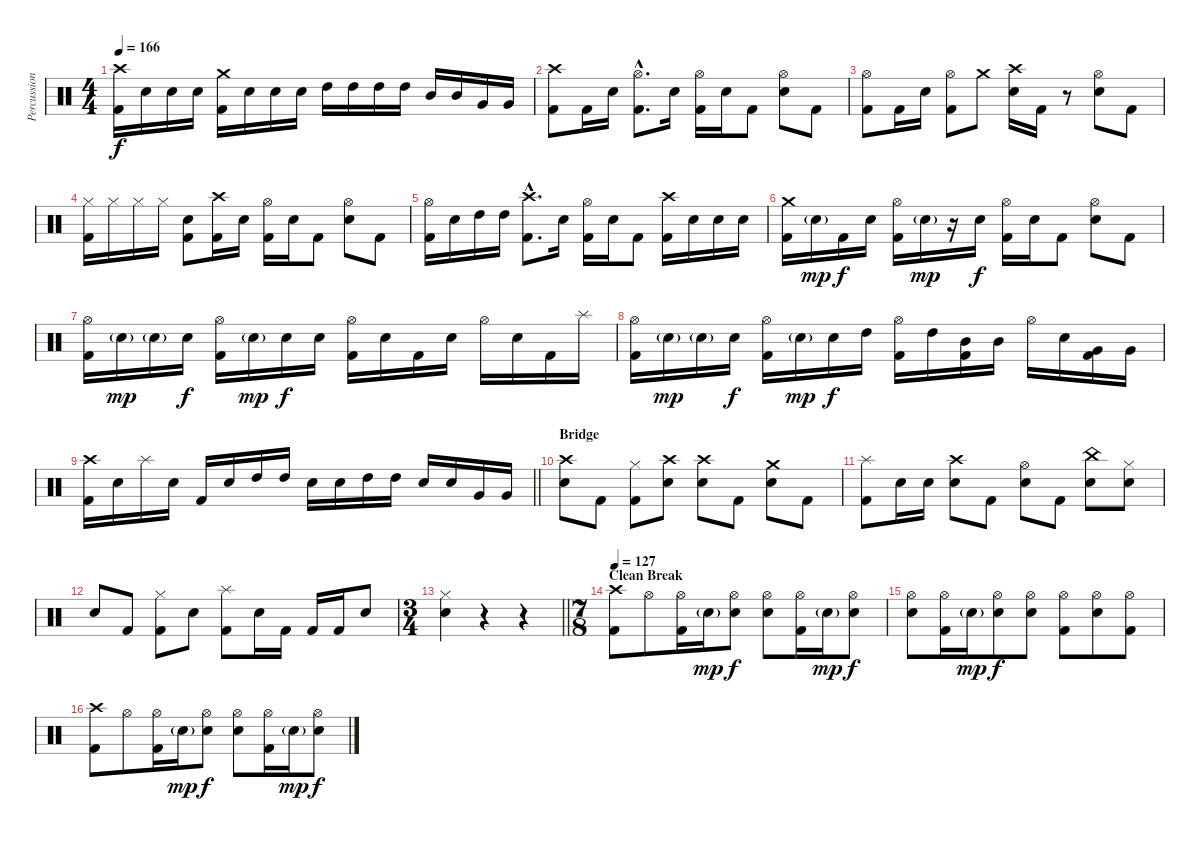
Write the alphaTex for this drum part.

\track ("Percussion" "Percussion") {instrument percussion}
\staff {score}
\articulation defaults
\ts (4 4)
\tempo 166
\clef neutral
\ks c
("Crash high (hit)" "Kick (hit) 2").16{dy f} "Electric Snare (hit)".16 "Electric Snare (hit)".16 "Electric Snare (hit)".16 ("Crash medium (hit)" "Kick (hit) 2").16 "Electric Snare (hit)".16 "Electric Snare (hit)".16 "Electric Snare (hit)".16 "High Tom (hit)".16 "High Tom (hit)".16 "High Tom (hit)".16 "High Tom (hit)".16 "Mid Tom (hit)".16 "Mid Tom (hit)".16 "Very Low Tom (hit)".16 "Very Low Tom (hit)".16 |
("Crash high (hit)" "Kick (hit) 2").8 "Kick (hit) 2".16 "Electric Snare (hit)".16 ("Hi-Hat (open)"{hac} "Kick (hit) 2"{hac}).8{d} "Electric Snare (hit)".16 ("Hi-Hat (open)" "Kick (hit) 2").16 "Electric Snare (hit)".16 "Kick (hit) 2".8 ("Hi-Hat (open)" "Electric Snare (hit)").8 "Kick (hit) 2".8 |
("Hi-Hat (open)" "Kick (hit) 2").8 "Kick (hit) 2".16 "Electric Snare (hit)".16 ("Hi-Hat (open)" "Kick (hit) 2").8 "Crash medium (hit)".8 ("Crash high (hit)" "Electric Snare (hit)").16 "Kick (hit) 2".16 r.8 ("Hi-Hat (open)" "Electric Snare (hit)").8 "Kick (hit) 2".8 |
("Hi-Hat (closed)" "Kick (hit) 2").16 "Hi-Hat (closed)".16 "Hi-Hat (closed)".16 "Hi-Hat (closed)".16 ("Electric Snare (hit)" "Kick (hit) 2").8 ("Crash high (hit)" "Kick (hit) 2").16 "Electric Snare (hit)".16 ("Hi-Hat (open)" "Kick (hit) 2").16 "Electric Snare (hit)".16 "Kick (hit) 2".8 ("Hi-Hat (open)" "Electric Snare (hit)").8 "Kick (hit) 2".8 |
("Hi-Hat (open)" "Kick (hit) 2").16 "Electric Snare (hit)".16 "High Tom (hit)".16 "High Tom (hit)".16 ("Crash high (hit)"{hac} "Kick (hit) 2"{hac}).8{d} "Electric Snare (hit)".16 ("Hi-Hat (open)" "Kick (hit) 2").16 "Electric Snare (hit)".16 "Kick (hit) 2".8 ("Crash high (hit)" "Kick (hit) 2").16 "Electric Snare (hit)".16 "Electric Snare (hit)".16 "Electric Snare (hit)".16 |
("Crash medium (hit)" "Kick (hit) 2").16 "Electric Snare (hit)"{g}.16{dy mp} "Kick (hit) 2".16{dy f} "Electric Snare (hit)".16 ("Hi-Hat (open)" "Kick (hit) 2").16 "Electric Snare (hit)"{g}.16{dy mp} r.16 "Electric Snare (hit)".16{dy f} ("Hi-Hat (open)" "Kick (hit) 2").16 "Electric Snare (hit)".16 "Kick (hit) 2".8 ("Hi-Hat (open)" "Electric Snare (hit)").8 "Kick (hit) 2".8 |
("Hi-Hat (open)" "Kick (hit) 2").16 "Electric Snare (hit)"{g}.16{dy mp} "Electric Snare (hit)"{g}.16 "Electric Snare (hit)".16{dy f} ("Hi-Hat (open)" "Kick (hit) 2").16 "Electric Snare (hit)"{g}.16{dy mp} "Electric Snare (hit)".16{dy f} "Electric Snare (hit)".16 ("Hi-Hat (open)" "Kick (hit) 2").16 "Electric Snare (hit)".16 "Kick (hit) 2".16 "Electric Snare (hit)".16 "Hi-Hat (open)".16 "Electric Snare (hit)".16 "Kick (hit) 2".16 "Splash (hit)".16 |
("Hi-Hat (open)" "Kick (hit) 2").16 "Electric Snare (hit)"{g}.16{dy mp} "Electric Snare (hit)"{g}.16 "Electric Snare (hit)".16{dy f} ("Hi-Hat (open)" "Kick (hit) 2").16 "Electric Snare (hit)"{g}.16{dy mp} "Electric Snare (hit)".16{dy f} "High Tom (hit)".16 ("Hi-Hat (open)" "Kick (hit) 2").16 "High Tom (hit)".16 ("Mid Tom (hit)" "Kick (hit) 2").16 "Mid Tom (hit)".16 "Hi-Hat (open)".16 "Electric Snare (hit)".16 ("Very Low Tom (hit)" "Kick (hit) 2").16 "Very Low Tom (hit)".16 |
\barLineRight lightlight
("Crash high (hit)" "Kick (hit) 2").16 "Electric Snare (hit)".16 "Splash (hit)".16 "Electric Snare (hit)".16 "Kick (hit) 2".16 "Electric Snare (hit)".16 "High Tom (hit)".16 "High Tom (hit)".16 "Electric Snare (hit)".16 "Electric Snare (hit)".16 "High Tom (hit)".16 "High Tom (hit)".16 "Electric Snare (hit)".16 "Electric Snare (hit)".16 "Very Low Tom (hit)".16 "Very Low Tom (hit)".16 |
\section ("" "Bridge")
("Crash high (hit)" "Electric Snare (hit)").8 "Kick (hit) 2".8 ("Hi-Hat (closed)" "Kick (hit) 2").8 ("Crash high (hit)" "Electric Snare (hit)").8 ("Crash high (hit)" "Electric Snare (hit)").8 "Kick (hit) 2".8 ("Crash medium (hit)" "Electric Snare (hit)").8 "Kick (hit) 2".8 |
("Splash (hit)" "Kick (hit) 2").8 "Electric Snare (hit)".16 "Electric Snare (hit)".16 ("Crash high (hit)" "Electric Snare (hit)").8 "Kick (hit) 2".8 ("Hi-Hat (open)" "Electric Snare (hit)").8 "Kick (hit) 2".8 ("China (hit)" "Electric Snare (hit)").8 ("Hi-Hat (closed)" "Electric Snare (hit)").8 |
"Electric Snare (hit)".8 "Kick (hit) 2".8 ("Hi-Hat (closed)" "Kick (hit) 2").8 "Electric Snare (hit)".8 ("Splash (hit)" "Kick (hit) 2").8 "Electric Snare (hit)".16 "Kick (hit) 2".16 "Kick (hit) 2".16 "Kick (hit) 2".16 "Electric Snare (hit)".8 |
\ts (3 4)
\barLineRight lightlight
("Hi-Hat (closed)" "Electric Snare (hit)").4 r.4 r.4 |
\ts (7 8)
\section ("" "Clean Break")
\tempo 127
("Crash high (hit)" "Kick (hit) 2").8 "Hi-Hat (open)".8 ("Hi-Hat (open)" "Kick (hit) 2").16 "Electric Snare (hit)"{g}.16{dy mp} ("Hi-Hat (open)" "Electric Snare (hit)").8{dy f} ("Hi-Hat (open)" "Electric Snare (hit)").8 ("Hi-Hat (open)" "Kick (hit) 2").16 "Electric Snare (hit)"{g}.16{dy mp} ("Hi-Hat (open)" "Electric Snare (hit)").8{dy f} |
("Hi-Hat (open)" "Electric Snare (hit)").8 ("Hi-Hat (open)" "Kick (hit) 2").16 "Electric Snare (hit)"{g}.16{dy mp} ("Hi-Hat (open)" "Electric Snare (hit)").8{dy f} ("Hi-Hat (open)" "Electric Snare (hit)").8 ("Hi-Hat (open)" "Kick (hit) 2").8 ("Hi-Hat (open)" "Electric Snare (hit)").8 ("Hi-Hat (open)" "Kick (hit) 2").8 |
("Crash high (hit)" "Kick (hit) 2").8 "Hi-Hat (open)".8 ("Hi-Hat (open)" "Kick (hit) 2").16 "Electric Snare (hit)"{g}.16{dy mp} ("Hi-Hat (open)" "Electric Snare (hit)").8{dy f} ("Hi-Hat (open)" "Electric Snare (hit)").8 ("Hi-Hat (open)" "Kick (hit) 2").16 "Electric Snare (hit)"{g}.16{dy mp} ("Hi-Hat (open)" "Electric Snare (hit)").8{dy f}
